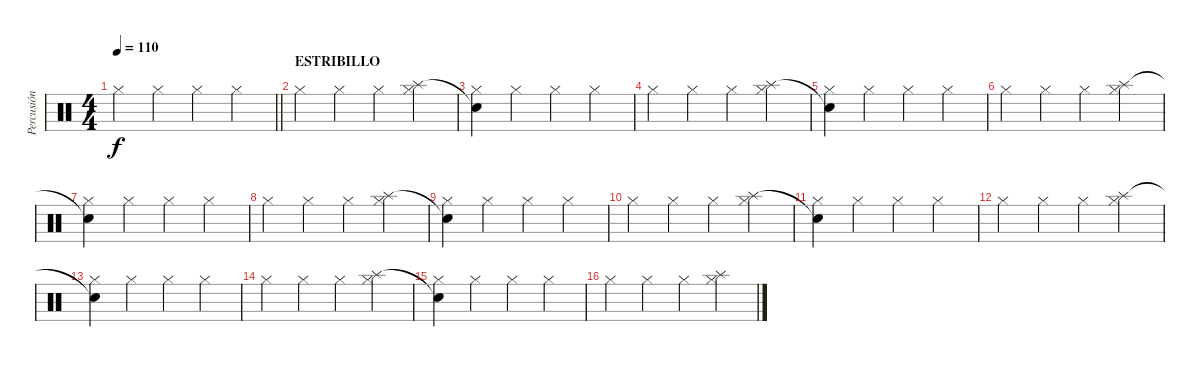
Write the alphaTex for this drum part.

\track ("Percusión" "Percusión") {instrument percussion}
\staff {score}
\articulation defaults
\ts (4 4)
\tempo 110
\clef neutral
\barLineRight lightlight
\ks c "Hi-Hat (closed)".4{dy f} "Hi-Hat (closed)".4 "Hi-Hat (closed)".4 "Hi-Hat (closed)".4
|
\section ("" "ESTRIBILLO")
"Hi-Hat (closed)".4 "Hi-Hat (closed)".4 "Hi-Hat (closed)".4 ("Hi-Hat (closed)" "Splash (hit)").4{volume 13} |
("Hi-Hat (closed)" "Snare (hit)"{t}).4{volume 11} "Hi-Hat (closed)".4 "Hi-Hat (closed)".4 "Hi-Hat (closed)".4 |
"Hi-Hat (closed)".4 "Hi-Hat (closed)".4 "Hi-Hat (closed)".4 ("Hi-Hat (closed)" "Splash (hit)").4{volume 13} |
("Hi-Hat (closed)" "Snare (hit)"{t}).4{volume 11} "Hi-Hat (closed)".4 "Hi-Hat (closed)".4 "Hi-Hat (closed)".4 |
"Hi-Hat (closed)".4 "Hi-Hat (closed)".4 "Hi-Hat (closed)".4 ("Hi-Hat (closed)" "Splash (hit)").4{volume 13} |
("Hi-Hat (closed)" "Snare (hit)"{t}).4{volume 11} "Hi-Hat (closed)".4 "Hi-Hat (closed)".4 "Hi-Hat (closed)".4 |
"Hi-Hat (closed)".4 "Hi-Hat (closed)".4 "Hi-Hat (closed)".4 ("Hi-Hat (closed)" "Splash (hit)").4{volume 13} |
("Hi-Hat (closed)" "Snare (hit)"{t}).4{volume 11} "Hi-Hat (closed)".4 "Hi-Hat (closed)".4 "Hi-Hat (closed)".4 |
"Hi-Hat (closed)".4 "Hi-Hat (closed)".4 "Hi-Hat (closed)".4 ("Hi-Hat (closed)" "Splash (hit)").4{volume 13} |
("Hi-Hat (closed)" "Snare (hit)"{t}).4{volume 11} "Hi-Hat (closed)".4 "Hi-Hat (closed)".4 "Hi-Hat (closed)".4 |
"Hi-Hat (closed)".4 "Hi-Hat (closed)".4 "Hi-Hat (closed)".4 ("Hi-Hat (closed)" "Splash (hit)").4{volume 13} |
("Hi-Hat (closed)" "Snare (hit)"{t}).4{volume 11} "Hi-Hat (closed)".4 "Hi-Hat (closed)".4 "Hi-Hat (closed)".4 |
"Hi-Hat (closed)".4 "Hi-Hat (closed)".4 "Hi-Hat (closed)".4 ("Hi-Hat (closed)" "Splash (hit)").4{volume 13} |
("Hi-Hat (closed)" "Snare (hit)"{t}).4{volume 11} "Hi-Hat (closed)".4 "Hi-Hat (closed)".4 "Hi-Hat (closed)".4 |
"Hi-Hat (closed)".4 "Hi-Hat (closed)".4 "Hi-Hat (closed)".4 ("Hi-Hat (closed)" "Splash (hit)").4{volume 13}
